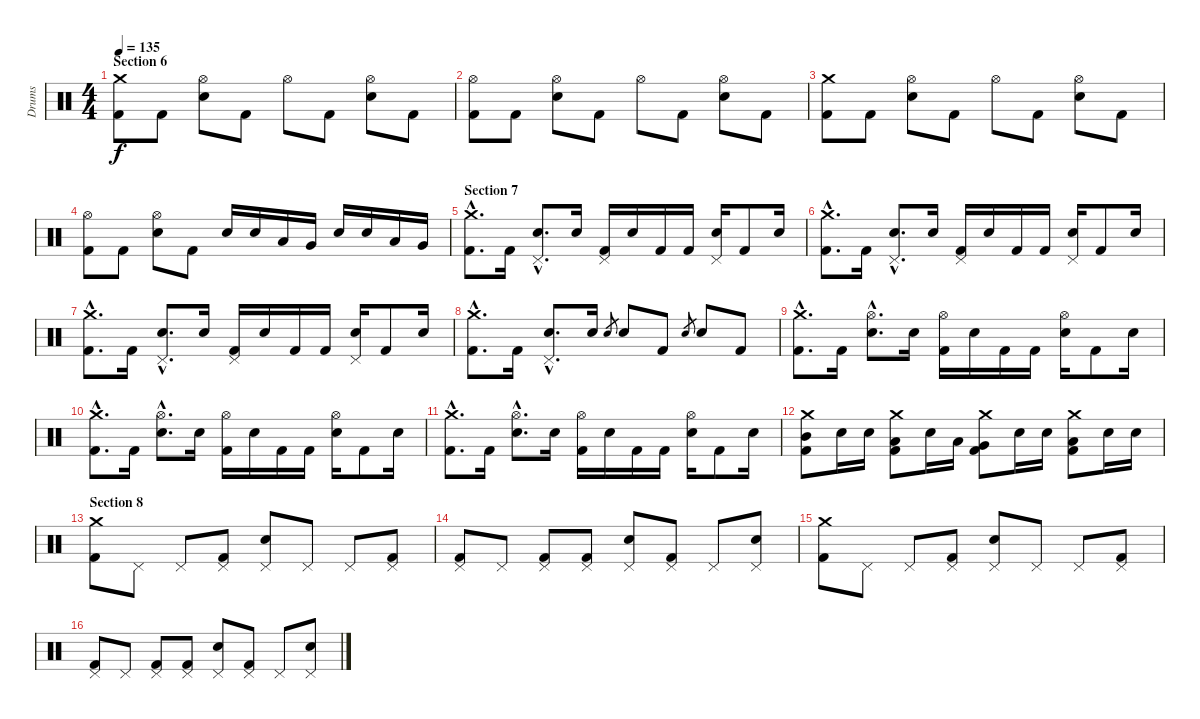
\track ("Drums" "Drums") {instrument percussion}
\staff {score}
\articulation defaults
\ts (4 4)
\section ("" "Section 6")
\tempo 135
\clef neutral
\ks c
("Crash medium (hit)" "Kick (hit) 2").8{dy f} "Kick (hit) 2".8 ("Hi-Hat (open)" "Electric Snare (hit)").8 "Kick (hit) 2".8 "Hi-Hat (open)".8 "Kick (hit) 2".8 ("Hi-Hat (open)" "Electric Snare (hit)").8 "Kick (hit) 2".8 |
("Hi-Hat (open)" "Kick (hit) 2").8 "Kick (hit) 2".8 ("Hi-Hat (open)" "Electric Snare (hit)").8 "Kick (hit) 2".8 "Hi-Hat (open)".8 "Kick (hit) 2".8 ("Hi-Hat (open)" "Electric Snare (hit)").8 "Kick (hit) 2".8 |
("Crash medium (hit)" "Kick (hit) 2").8 "Kick (hit) 2".8 ("Hi-Hat (open)" "Electric Snare (hit)").8 "Kick (hit) 2".8 "Hi-Hat (open)".8 "Kick (hit) 2".8 ("Hi-Hat (open)" "Electric Snare (hit)").8 "Kick (hit) 2".8 |
("Hi-Hat (open)" "Kick (hit) 2").8 "Kick (hit) 2".8 ("Hi-Hat (open)" "Electric Snare (hit)").8 "Kick (hit) 2".8 "Electric Snare (hit)".16 "Electric Snare (hit)".16 "Low Tom (hit)".16 "Very Low Tom (hit)".16 "Electric Snare (hit)".16 "Electric Snare (hit)".16 "Low Tom (hit)".16 "Very Low Tom (hit)".16 |
\section ("" "Section 7")
("Crash medium (hit)"{hac} "Kick (hit) 2"{hac}).8{d} "Kick (hit) 2".16 ("Pedal Hi-Hat (hit)"{hac} "Electric Snare (hit)"{hac}).8{d} "Electric Snare (hit)".16 ("Pedal Hi-Hat (hit)" "Kick (hit) 2").16 "Electric Snare (hit)".16 "Kick (hit) 2".16 "Kick (hit) 2".16 ("Pedal Hi-Hat (hit)" "Electric Snare (hit)").16 "Kick (hit) 2".8 "Electric Snare (hit)".16 |
("Crash medium (hit)"{hac} "Kick (hit) 2"{hac}).8{d} "Kick (hit) 2".16 ("Pedal Hi-Hat (hit)"{hac} "Electric Snare (hit)"{hac}).8{d} "Electric Snare (hit)".16 ("Pedal Hi-Hat (hit)" "Kick (hit) 2").16 "Electric Snare (hit)".16 "Kick (hit) 2".16 "Kick (hit) 2".16 ("Pedal Hi-Hat (hit)" "Electric Snare (hit)").16 "Kick (hit) 2".8 "Electric Snare (hit)".16 |
("Crash medium (hit)"{hac} "Kick (hit) 2"{hac}).8{d} "Kick (hit) 2".16 ("Pedal Hi-Hat (hit)"{hac} "Electric Snare (hit)"{hac}).8{d} "Electric Snare (hit)".16 ("Pedal Hi-Hat (hit)" "Kick (hit) 2").16 "Electric Snare (hit)".16 "Kick (hit) 2".16 "Kick (hit) 2".16 ("Pedal Hi-Hat (hit)" "Electric Snare (hit)").16 "Kick (hit) 2".8 "Electric Snare (hit)".16 |
("Crash medium (hit)"{hac} "Kick (hit) 2"{hac}).8{d} "Kick (hit) 2".16 ("Pedal Hi-Hat (hit)"{hac} "Electric Snare (hit)"{hac}).8{d} "Electric Snare (hit)".16 "Electric Snare (hit)".8{gr} "Electric Snare (hit)".8 "Kick (hit) 2".8 "Electric Snare (hit)".8{gr} "Electric Snare (hit)".8 "Kick (hit) 2".8 |
("Crash medium (hit)"{hac} "Kick (hit) 2"{hac}).8{d} "Kick (hit) 2".16 ("Hi-Hat (open)"{hac} "Electric Snare (hit)"{hac}).8{d} "Electric Snare (hit)".16 ("Hi-Hat (open)" "Kick (hit) 2").16 "Electric Snare (hit)".16 "Kick (hit) 2".16 "Kick (hit) 2".16 ("Hi-Hat (open)" "Electric Snare (hit)").16 "Kick (hit) 2".8 "Electric Snare (hit)".16 |
("Crash medium (hit)"{hac} "Kick (hit) 2"{hac}).8{d} "Kick (hit) 2".16 ("Hi-Hat (open)"{hac} "Electric Snare (hit)"{hac}).8{d} "Electric Snare (hit)".16 ("Hi-Hat (open)" "Kick (hit) 2").16 "Electric Snare (hit)".16 "Kick (hit) 2".16 "Kick (hit) 2".16 ("Hi-Hat (open)" "Electric Snare (hit)").16 "Kick (hit) 2".8 "Electric Snare (hit)".16 |
("Crash medium (hit)"{hac} "Kick (hit) 2"{hac}).8{d} "Kick (hit) 2".16 ("Hi-Hat (open)"{hac} "Electric Snare (hit)"{hac}).8{d} "Electric Snare (hit)".16 ("Hi-Hat (open)" "Kick (hit) 2").16 "Electric Snare (hit)".16 "Kick (hit) 2".16 "Kick (hit) 2".16 ("Hi-Hat (open)" "Electric Snare (hit)").16 "Kick (hit) 2".8 "Electric Snare (hit)".16 |
("Crash medium (hit)" "Kick (hit) 2" "Mid Tom (hit)").8 "Electric Snare (hit)".16 "Electric Snare (hit)".16 ("Crash medium (hit)" "Kick (hit) 2" "Low Tom (hit)").8 "Electric Snare (hit)".16 "Low Tom (hit)".16 ("Crash medium (hit)" "Kick (hit) 2" "Very Low Tom (hit)").8 "Electric Snare (hit)".16 "Electric Snare (hit)".16 ("Crash medium (hit)" "Kick (hit) 2" "Low Tom (hit)").8 "Electric Snare (hit)".16 "Electric Snare (hit)".16 |
\section ("" "Section 8")
("Crash medium (hit)" "Kick (hit) 2").8 "Pedal Hi-Hat (hit)".8 "Pedal Hi-Hat (hit)".8 ("Pedal Hi-Hat (hit)" "Kick (hit) 2").8 ("Pedal Hi-Hat (hit)" "Electric Snare (hit)").8 "Pedal Hi-Hat (hit)".8 "Pedal Hi-Hat (hit)".8 ("Pedal Hi-Hat (hit)" "Kick (hit) 2").8 |
("Pedal Hi-Hat (hit)" "Kick (hit) 2").8 "Pedal Hi-Hat (hit)".8 ("Pedal Hi-Hat (hit)" "Kick (hit) 2").8 ("Pedal Hi-Hat (hit)" "Kick (hit) 2").8 ("Pedal Hi-Hat (hit)" "Electric Snare (hit)").8 ("Pedal Hi-Hat (hit)" "Kick (hit) 2").8 "Pedal Hi-Hat (hit)".8 ("Pedal Hi-Hat (hit)" "Electric Snare (hit)").8 |
("Crash medium (hit)" "Kick (hit) 2").8 "Pedal Hi-Hat (hit)".8 "Pedal Hi-Hat (hit)".8 ("Pedal Hi-Hat (hit)" "Kick (hit) 2").8 ("Pedal Hi-Hat (hit)" "Electric Snare (hit)").8 "Pedal Hi-Hat (hit)".8 "Pedal Hi-Hat (hit)".8 ("Pedal Hi-Hat (hit)" "Kick (hit) 2").8 |
("Pedal Hi-Hat (hit)" "Kick (hit) 2").8 "Pedal Hi-Hat (hit)".8 ("Pedal Hi-Hat (hit)" "Kick (hit) 2").8 ("Pedal Hi-Hat (hit)" "Kick (hit) 2").8 ("Pedal Hi-Hat (hit)" "Electric Snare (hit)").8 ("Pedal Hi-Hat (hit)" "Kick (hit) 2").8 "Pedal Hi-Hat (hit)".8 ("Pedal Hi-Hat (hit)" "Electric Snare (hit)").8
